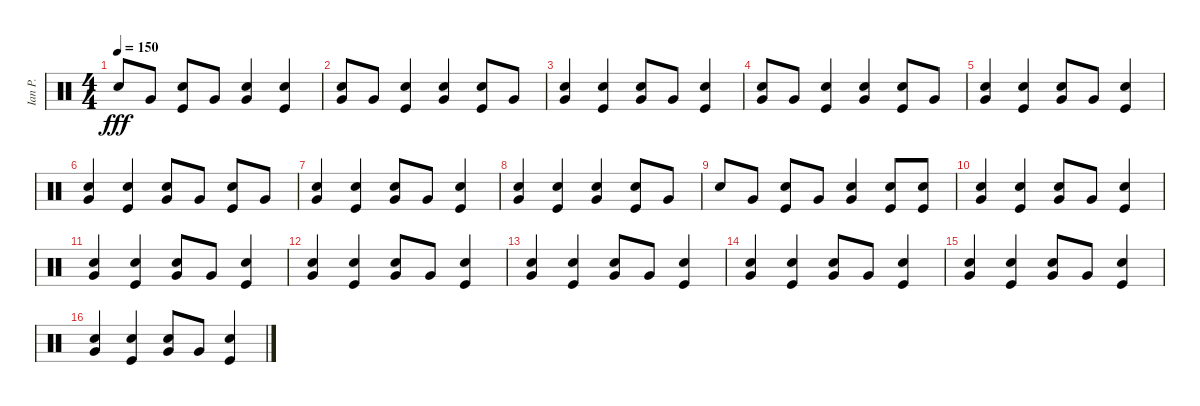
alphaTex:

\track ("Ian P." "Ian P.") {instrument percussion}
\staff {score}
\articulation defaults
\ts (4 4)
\tempo 150
\clef neutral
\ks c "Electric Snare (hit)".8{dy fff} "Very Low Tom (hit)".8
("Electric Snare (hit)" "Kick (hit)").8 "Very Low Tom (hit)".8 ("Electric Snare (hit)" "Very Low Tom (hit)").4 ("Kick (hit)" "Electric Snare (hit)").4 |
("Very Low Tom (hit)" "Electric Snare (hit)").8 "Very Low Tom (hit)".8 ("Kick (hit)" "Electric Snare (hit)").4 ("Very Low Tom (hit)" "Electric Snare (hit)").4 ("Kick (hit)" "Electric Snare (hit)").8 "Very Low Tom (hit)".8 |
("Very Low Tom (hit)" "Electric Snare (hit)").4 ("Kick (hit)" "Electric Snare (hit)").4 ("Very Low Tom (hit)" "Electric Snare (hit)").8 "Very Low Tom (hit)".8 ("Kick (hit)" "Electric Snare (hit)").4 |
("Very Low Tom (hit)" "Electric Snare (hit)").8 "Very Low Tom (hit)".8 ("Kick (hit)" "Electric Snare (hit)").4 ("Very Low Tom (hit)" "Electric Snare (hit)").4 ("Kick (hit)" "Electric Snare (hit)").8 "Very Low Tom (hit)".8 |
("Very Low Tom (hit)" "Electric Snare (hit)").4 ("Kick (hit)" "Electric Snare (hit)").4 ("Very Low Tom (hit)" "Electric Snare (hit)").8 "Very Low Tom (hit)".8 ("Kick (hit)" "Electric Snare (hit)").4 |
("Very Low Tom (hit)" "Electric Snare (hit)").4 ("Kick (hit)" "Electric Snare (hit)").4 ("Very Low Tom (hit)" "Electric Snare (hit)").8 "Very Low Tom (hit)".8 ("Kick (hit)" "Electric Snare (hit)").8 "Very Low Tom (hit)".8 |
("Very Low Tom (hit)" "Electric Snare (hit)").4 ("Kick (hit)" "Electric Snare (hit)").4 ("Electric Snare (hit)" "Very Low Tom (hit)").8 "Very Low Tom (hit)".8 ("Kick (hit)" "Electric Snare (hit)").4 |
("Electric Snare (hit)" "Very Low Tom (hit)").4 ("Electric Snare (hit)" "Kick (hit)").4 ("Electric Snare (hit)" "Very Low Tom (hit)").4 ("Electric Snare (hit)" "Kick (hit)").8 "Very Low Tom (hit)".8 |
"Electric Snare (hit)".8 "Very Low Tom (hit)".8 ("Kick (hit)" "Electric Snare (hit)").8 "Very Low Tom (hit)".8 ("Very Low Tom (hit)" "Electric Snare (hit)").4 ("Kick (hit)" "Electric Snare (hit)").8 ("Kick (hit)" "Electric Snare (hit)").8 |
("Very Low Tom (hit)" "Electric Snare (hit)").4 ("Kick (hit)" "Electric Snare (hit)").4 ("Electric Snare (hit)" "Very Low Tom (hit)").8 "Very Low Tom (hit)".8 ("Kick (hit)" "Electric Snare (hit)").4 |
("Very Low Tom (hit)" "Electric Snare (hit)").4 ("Kick (hit)" "Electric Snare (hit)").4 ("Electric Snare (hit)" "Very Low Tom (hit)").8 "Very Low Tom (hit)".8 ("Kick (hit)" "Electric Snare (hit)").4 |
("Very Low Tom (hit)" "Electric Snare (hit)").4 ("Kick (hit)" "Electric Snare (hit)").4 ("Electric Snare (hit)" "Very Low Tom (hit)").8 "Very Low Tom (hit)".8 ("Kick (hit)" "Electric Snare (hit)").4 |
("Very Low Tom (hit)" "Electric Snare (hit)").4 ("Kick (hit)" "Electric Snare (hit)").4 ("Electric Snare (hit)" "Very Low Tom (hit)").8 "Very Low Tom (hit)".8 ("Kick (hit)" "Electric Snare (hit)").4 |
("Very Low Tom (hit)" "Electric Snare (hit)").4 ("Kick (hit)" "Electric Snare (hit)").4 ("Electric Snare (hit)" "Very Low Tom (hit)").8 "Very Low Tom (hit)".8 ("Kick (hit)" "Electric Snare (hit)").4 |
("Very Low Tom (hit)" "Electric Snare (hit)").4 ("Kick (hit)" "Electric Snare (hit)").4 ("Electric Snare (hit)" "Very Low Tom (hit)").8 "Very Low Tom (hit)".8 ("Kick (hit)" "Electric Snare (hit)").4 |
("Very Low Tom (hit)" "Electric Snare (hit)").4 ("Kick (hit)" "Electric Snare (hit)").4 ("Electric Snare (hit)" "Very Low Tom (hit)").8 "Very Low Tom (hit)".8 ("Kick (hit)" "Electric Snare (hit)").4
